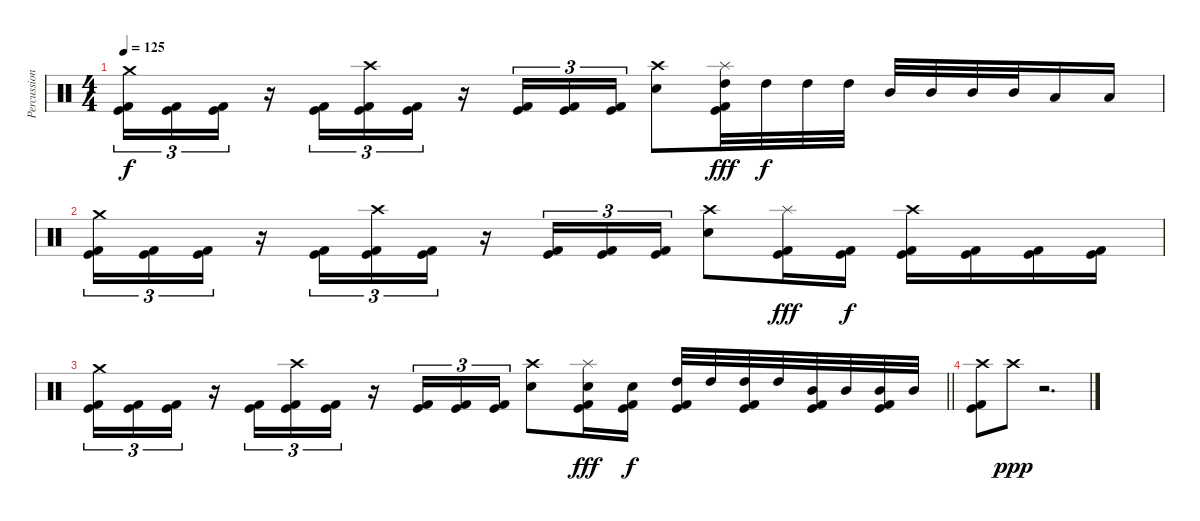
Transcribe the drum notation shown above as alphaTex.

\track ("Percussion" "Percussion") {instrument percussion}
\staff {score}
\articulation defaults
\ts (4 4)
\tempo 125
\clef neutral
\ks c
("Crash medium (hit)" "Kick (hit)" "Kick (hit) 2").16{tu (3 2) dy f} ("Kick (hit)" "Kick (hit) 2").16{tu (3 2)} ("Kick (hit)" "Kick (hit) 2").16{tu (3 2)} r.16 ("Kick (hit)" "Kick (hit) 2").16{tu (3 2)} ("Crash high (hit)" "Kick (hit)" "Kick (hit) 2").16{tu (3 2)} ("Kick (hit)" "Kick (hit) 2").16{tu (3 2)} r.16 ("Kick (hit)" "Kick (hit) 2").16{tu (3 2)} ("Kick (hit)" "Kick (hit) 2").16{tu (3 2)} ("Kick (hit)" "Kick (hit) 2").16{tu (3 2)} ("Crash high (hit)" "Snare (hit) 2").8 ("Splash (hit)" "High Tom (hit)" "Kick (hit)" "Kick (hit) 2").32{dy fff} "High Tom (hit)".32{dy f} "High Tom (hit)".32 "High Tom (hit)".32 "Mid Tom (hit)".32 "Mid Tom (hit)".32 "Mid Tom (hit)".32 "Mid Tom (hit)".32 "Low Tom (hit)".16 "Low Tom (hit)".16 |
("Crash medium (hit)" "Kick (hit)" "Kick (hit) 2").16{tu (3 2)} ("Kick (hit)" "Kick (hit) 2").16{tu (3 2)} ("Kick (hit)" "Kick (hit) 2").16{tu (3 2)} r.16 ("Kick (hit)" "Kick (hit) 2").16{tu (3 2)} ("Crash high (hit)" "Kick (hit)" "Kick (hit) 2").16{tu (3 2)} ("Kick (hit)" "Kick (hit) 2").16{tu (3 2)} r.16 ("Kick (hit)" "Kick (hit) 2").16{tu (3 2)} ("Kick (hit)" "Kick (hit) 2").16{tu (3 2)} ("Kick (hit)" "Kick (hit) 2").16{tu (3 2)} ("Crash high (hit)" "Snare (hit) 2").8 ("Splash (hit)" "Kick (hit)" "Kick (hit) 2").16{dy fff} ("Kick (hit)" "Kick (hit) 2").16{dy f} ("Crash high (hit)" "Kick (hit)" "Kick (hit) 2").16 ("Kick (hit)" "Kick (hit) 2").16 ("Kick (hit)" "Kick (hit) 2").16 ("Kick (hit)" "Kick (hit) 2").16 |
\barLineRight lightlight
("Crash medium (hit)" "Kick (hit)" "Kick (hit) 2").16{tu (3 2)} ("Kick (hit)" "Kick (hit) 2").16{tu (3 2)} ("Kick (hit)" "Kick (hit) 2").16{tu (3 2)} r.16 ("Kick (hit)" "Kick (hit) 2").16{tu (3 2)} ("Crash high (hit)" "Kick (hit)" "Kick (hit) 2").16{tu (3 2)} ("Kick (hit)" "Kick (hit) 2").16{tu (3 2)} r.16 ("Kick (hit)" "Kick (hit) 2").16{tu (3 2)} ("Kick (hit)" "Kick (hit) 2").16{tu (3 2)} ("Kick (hit)" "Kick (hit) 2").16{tu (3 2)} ("Crash high (hit)" "Snare (hit) 2").8 ("Splash (hit)" "Snare (hit) 2" "Kick (hit)" "Kick (hit) 2").16{dy fff} ("Snare (hit) 2" "Kick (hit)" "Kick (hit) 2").16{dy f} ("High Tom (hit)" "Kick (hit)" "Kick (hit) 2").32 "High Tom (hit)".32 ("High Tom (hit)" "Kick (hit)" "Kick (hit) 2").32 "High Tom (hit)".32 ("Mid Tom (hit)" "Kick (hit)" "Kick (hit) 2").32 "Mid Tom (hit)".32 ("Mid Tom (hit)" "Kick (hit)" "Kick (hit) 2").32 "Mid Tom (hit)".32 |
("Crash high (hit)" "Kick (hit)" "Kick (hit) 2").8 "Crash high (hit)".8{dy ppp} r.2{d}
